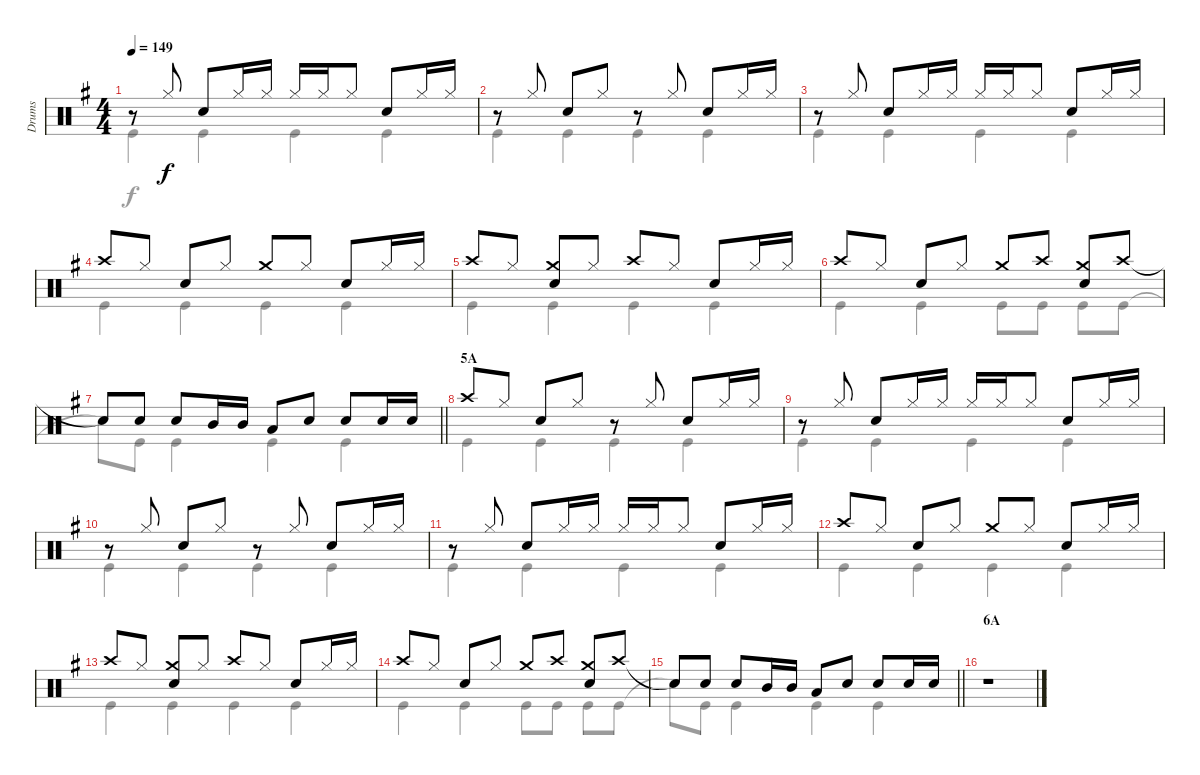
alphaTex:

\track ("Drums" "Drums") {instrument percussion}
\staff {score}
\articulation defaults
\voice
\ts (4 4)
\tempo 149
\clef neutral
\ks g
r.8{dy f} "Hi-Hat (closed)".8 "Snare (hit) 2".8 "Hi-Hat (closed)".16 "Hi-Hat (closed)".16 "Hi-Hat (closed)".16 "Hi-Hat (closed)".16 "Hi-Hat (closed)".8 "Snare (hit) 2".8 "Hi-Hat (closed)".16 "Hi-Hat (closed)".16 |
r.8 "Hi-Hat (closed)".8 "Snare (hit) 2".8 "Hi-Hat (closed)".8 r.8 "Hi-Hat (closed)".8 "Snare (hit) 2".8 "Hi-Hat (closed)".16 "Hi-Hat (closed)".16 |
r.8 "Hi-Hat (closed)".8 "Snare (hit) 2".8 "Hi-Hat (closed)".16 "Hi-Hat (closed)".16 "Hi-Hat (closed)".16 "Hi-Hat (closed)".16 "Hi-Hat (closed)".8 "Snare (hit) 2".8 "Hi-Hat (closed)".16 "Hi-Hat (closed)".16 |
"Crash high (hit)".8 "Hi-Hat (closed)".8 "Snare (hit) 2".8 "Hi-Hat (closed)".8 "Crash medium (hit)".8 "Hi-Hat (closed)".8 "Snare (hit) 2".8 "Hi-Hat (closed)".16 "Hi-Hat (closed)".16 |
"Crash high (hit)".8 "Hi-Hat (closed)".8 ("Crash medium (hit)" "Snare (hit) 2").8 "Hi-Hat (closed)".8 "Crash high (hit)".8 "Hi-Hat (closed)".8 "Snare (hit) 2".8 "Hi-Hat (closed)".16 "Hi-Hat (closed)".16 |
"Crash high (hit)".8 "Hi-Hat (closed)".8 "Snare (hit) 2".8 "Hi-Hat (closed)".8 "Crash medium (hit)".8 "Crash high (hit)".8 ("Crash medium (hit)" "Snare (hit) 2").8 "Crash high (hit)".8 |
\barLineRight lightlight "Snare (hit)"{t}.8 "Snare (hit) 2".8 "Snare (hit) 2".8 "Mid Tom (hit)".16 "Mid Tom (hit)".16 "Low Tom (hit)".8 "Snare (hit) 2".8 "Snare (hit) 2".8 "Snare (hit) 2".16 "Snare (hit) 2".16
|
\section ("" "5A")
"Crash high (hit)".8 "Hi-Hat (closed)".8 "Snare (hit) 2".8 "Hi-Hat (closed)".8 r.8 "Hi-Hat (closed)".8 "Snare (hit) 2".8 "Hi-Hat (closed)".16 "Hi-Hat (closed)".16 |
r.8 "Hi-Hat (closed)".8 "Snare (hit) 2".8 "Hi-Hat (closed)".16 "Hi-Hat (closed)".16 "Hi-Hat (closed)".16 "Hi-Hat (closed)".16 "Hi-Hat (closed)".8 "Snare (hit) 2".8 "Hi-Hat (closed)".16 "Hi-Hat (closed)".16 |
r.8 "Hi-Hat (closed)".8 "Snare (hit) 2".8 "Hi-Hat (closed)".8 r.8 "Hi-Hat (closed)".8 "Snare (hit) 2".8 "Hi-Hat (closed)".16 "Hi-Hat (closed)".16 |
r.8 "Hi-Hat (closed)".8 "Snare (hit) 2".8 "Hi-Hat (closed)".16 "Hi-Hat (closed)".16 "Hi-Hat (closed)".16 "Hi-Hat (closed)".16 "Hi-Hat (closed)".8 "Snare (hit) 2".8 "Hi-Hat (closed)".16 "Hi-Hat (closed)".16 |
"Crash high (hit)".8 "Hi-Hat (closed)".8 "Snare (hit) 2".8 "Hi-Hat (closed)".8 "Crash medium (hit)".8 "Hi-Hat (closed)".8 "Snare (hit) 2".8 "Hi-Hat (closed)".16 "Hi-Hat (closed)".16 |
"Crash high (hit)".8 "Hi-Hat (closed)".8 ("Crash medium (hit)" "Snare (hit) 2").8 "Hi-Hat (closed)".8 "Crash high (hit)".8 "Hi-Hat (closed)".8 "Snare (hit) 2".8 "Hi-Hat (closed)".16 "Hi-Hat (closed)".16 |
"Crash high (hit)".8 "Hi-Hat (closed)".8 "Snare (hit) 2".8 "Hi-Hat (closed)".8 "Crash medium (hit)".8 "Crash high (hit)".8 ("Crash medium (hit)" "Snare (hit) 2").8 "Crash high (hit)".8 |
\barLineRight lightlight "Snare (hit)"{t}.8 "Snare (hit) 2".8 "Snare (hit) 2".8 "Mid Tom (hit)".16 "Mid Tom (hit)".16 "Low Tom (hit)".8 "Snare (hit) 2".8 "Snare (hit) 2".8 "Snare (hit) 2".16 "Snare (hit) 2".16
|
\section ("" "6A")
r.1
\voice
\clef neutral
\ottava regular
\simile none
\ks g "Kick (hit)".4{dy f} "Kick (hit)".4 "Kick (hit)".4 "Kick (hit)".4
|
"Kick (hit)".4 "Kick (hit)".4 "Kick (hit)".4 "Kick (hit)".4 |
"Kick (hit)".4 "Kick (hit)".4 "Kick (hit)".4 "Kick (hit)".4 |
"Kick (hit)".4 "Kick (hit)".4 "Kick (hit)".4 "Kick (hit)".4 |
"Kick (hit)".4 "Kick (hit)".4 "Kick (hit)".4 "Kick (hit)".4 |
"Kick (hit)".4 "Kick (hit)".4 "Kick (hit)".8 "Kick (hit)".8 "Kick (hit)".8 "Kick (hit)".8 |
\barLineRight lightlight "Snare (hit)"{t}.8 "Kick (hit)".8 "Kick (hit)".4 "Kick (hit)".4 "Kick (hit)".4
|
"Kick (hit)".4 "Kick (hit)".4 "Kick (hit)".4 "Kick (hit)".4 |
"Kick (hit)".4 "Kick (hit)".4 "Kick (hit)".4 "Kick (hit)".4 |
"Kick (hit)".4 "Kick (hit)".4 "Kick (hit)".4 "Kick (hit)".4 |
"Kick (hit)".4 "Kick (hit)".4 "Kick (hit)".4 "Kick (hit)".4 |
"Kick (hit)".4 "Kick (hit)".4 "Kick (hit)".4 "Kick (hit)".4 |
"Kick (hit)".4 "Kick (hit)".4 "Kick (hit)".4 "Kick (hit)".4 |
"Kick (hit)".4 "Kick (hit)".4 "Kick (hit)".8 "Kick (hit)".8 "Kick (hit)".8 "Kick (hit)".8 |
\barLineRight lightlight "Snare (hit)"{t}.8 "Kick (hit)".8 "Kick (hit)".4 "Kick (hit)".4 "Kick (hit)".4
|
r.1
